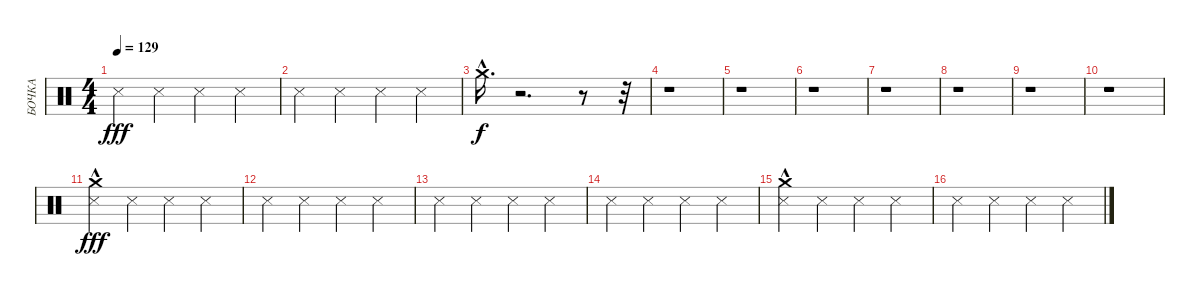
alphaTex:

\track ("БОЧКА" "БОЧКА") {instrument percussion}
\staff {score}
\articulation defaults
\ts (4 4)
\tempo 129
\clef neutral
\ks c "Metronome (hit)".4{dy fff} "Metronome (hit)".4 "Metronome (hit)".4 "Metronome (hit)".4
|
"Metronome (hit)".4 "Metronome (hit)".4 "Metronome (hit)".4 "Metronome (hit)".4 |
"Crash medium (hit)"{hac}.16{d dy f} r.2{d} r.8 r.32 |
r.1 |
r.1 |
r.1 |
r.1 |
r.1 |
r.1 |
r.1 |
("Metronome (hit)" "Crash medium (hit)"{hac}).4{dy fff} "Metronome (hit)".4 "Metronome (hit)".4 "Metronome (hit)".4 |
"Metronome (hit)".4 "Metronome (hit)".4 "Metronome (hit)".4 "Metronome (hit)".4 |
"Metronome (hit)".4 "Metronome (hit)".4 "Metronome (hit)".4 "Metronome (hit)".4 |
"Metronome (hit)".4 "Metronome (hit)".4 "Metronome (hit)".4 "Metronome (hit)".4 |
("Metronome (hit)" "Crash medium (hit)"{hac}).4 "Metronome (hit)".4 "Metronome (hit)".4 "Metronome (hit)".4 |
"Metronome (hit)".4 "Metronome (hit)".4 "Metronome (hit)".4 "Metronome (hit)".4
